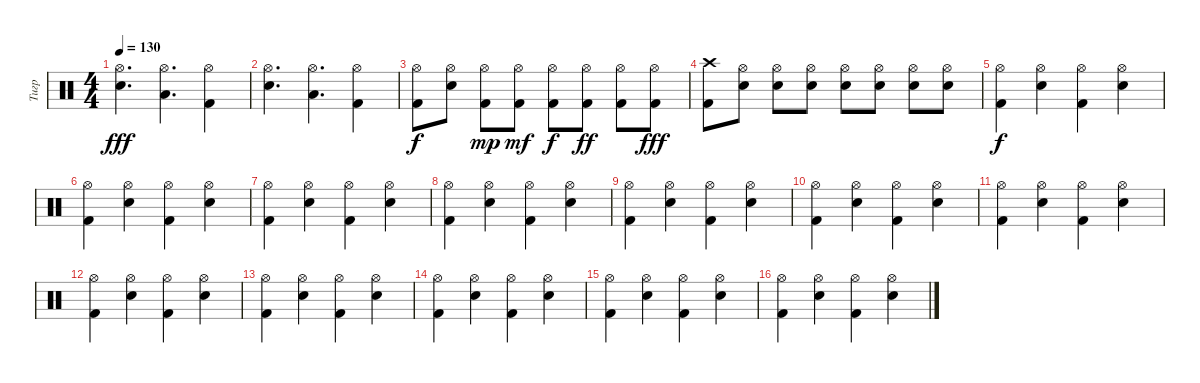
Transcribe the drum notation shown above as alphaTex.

\track ("Тигр" "Тигр") {instrument percussion}
\staff {score}
\articulation defaults
\ts (4 4)
\tempo 130
\clef neutral
\ks c
("Snare (hit) 2" "Hi-Hat (open)").4{d dy fff} ("Low Floor Tom (hit)" "Hi-Hat (open)").4{d} ("Kick (hit) 2" "Hi-Hat (open)").4 |
("Snare (hit) 2" "Hi-Hat (open)").4{d} ("Low Floor Tom (hit)" "Hi-Hat (open)").4{d} ("Kick (hit) 2" "Hi-Hat (open)").4 |
("Kick (hit) 2" "Hi-Hat (open)").8{dy f} ("Snare (hit) 2" "Hi-Hat (open)").8 ("Kick (hit) 2" "Hi-Hat (open)").8{dy mp} ("Kick (hit) 2" "Hi-Hat (open)").8{dy mf} ("Kick (hit) 2" "Hi-Hat (open)").8{dy f} ("Kick (hit) 2" "Hi-Hat (open)").8{dy ff} ("Kick (hit) 2" "Hi-Hat (open)").8 ("Kick (hit) 2" "Hi-Hat (open)").8{dy fff} |
("Kick (hit) 2" "Crash high (hit)").8 ("Snare (hit) 2" "Hi-Hat (open)").8 ("Snare (hit) 2" "Hi-Hat (open)").8 ("Snare (hit) 2" "Hi-Hat (open)").8 ("Snare (hit) 2" "Hi-Hat (open)").8 ("Snare (hit) 2" "Hi-Hat (open)").8 ("Snare (hit) 2" "Hi-Hat (open)").8 ("Snare (hit) 2" "Hi-Hat (open)").8 |
("Hi-Hat (open)" "Kick (hit) 2").4{dy f} ("Hi-Hat (open)" "Snare (hit) 2").4 ("Hi-Hat (open)" "Kick (hit) 2").4 ("Hi-Hat (open)" "Snare (hit) 2").4 |
("Hi-Hat (open)" "Kick (hit) 2").4 ("Hi-Hat (open)" "Snare (hit) 2").4 ("Hi-Hat (open)" "Kick (hit) 2").4 ("Hi-Hat (open)" "Snare (hit) 2").4 |
("Hi-Hat (open)" "Kick (hit) 2").4 ("Hi-Hat (open)" "Snare (hit) 2").4 ("Hi-Hat (open)" "Kick (hit) 2").4 ("Hi-Hat (open)" "Snare (hit) 2").4 |
("Hi-Hat (open)" "Kick (hit) 2").4 ("Hi-Hat (open)" "Snare (hit) 2").4 ("Hi-Hat (open)" "Kick (hit) 2").4 ("Hi-Hat (open)" "Snare (hit) 2").4 |
("Hi-Hat (open)" "Kick (hit) 2").4 ("Hi-Hat (open)" "Snare (hit) 2").4 ("Hi-Hat (open)" "Kick (hit) 2").4 ("Hi-Hat (open)" "Snare (hit) 2").4 |
("Hi-Hat (open)" "Kick (hit) 2").4 ("Hi-Hat (open)" "Snare (hit) 2").4 ("Hi-Hat (open)" "Kick (hit) 2").4 ("Hi-Hat (open)" "Snare (hit) 2").4 |
("Hi-Hat (open)" "Kick (hit) 2").4 ("Hi-Hat (open)" "Snare (hit) 2").4 ("Hi-Hat (open)" "Kick (hit) 2").4 ("Hi-Hat (open)" "Snare (hit) 2").4 |
("Hi-Hat (open)" "Kick (hit) 2").4 ("Hi-Hat (open)" "Snare (hit) 2").4 ("Hi-Hat (open)" "Kick (hit) 2").4 ("Hi-Hat (open)" "Snare (hit) 2").4 |
("Hi-Hat (open)" "Kick (hit) 2").4 ("Hi-Hat (open)" "Snare (hit) 2").4 ("Hi-Hat (open)" "Kick (hit) 2").4 ("Hi-Hat (open)" "Snare (hit) 2").4 |
("Hi-Hat (open)" "Kick (hit) 2").4 ("Hi-Hat (open)" "Snare (hit) 2").4 ("Hi-Hat (open)" "Kick (hit) 2").4 ("Hi-Hat (open)" "Snare (hit) 2").4 |
("Hi-Hat (open)" "Kick (hit) 2").4 ("Hi-Hat (open)" "Snare (hit) 2").4 ("Hi-Hat (open)" "Kick (hit) 2").4 ("Hi-Hat (open)" "Snare (hit) 2").4 |
("Hi-Hat (open)" "Kick (hit) 2").4 ("Hi-Hat (open)" "Snare (hit) 2").4 ("Hi-Hat (open)" "Kick (hit) 2").4 ("Hi-Hat (open)" "Snare (hit) 2").4
